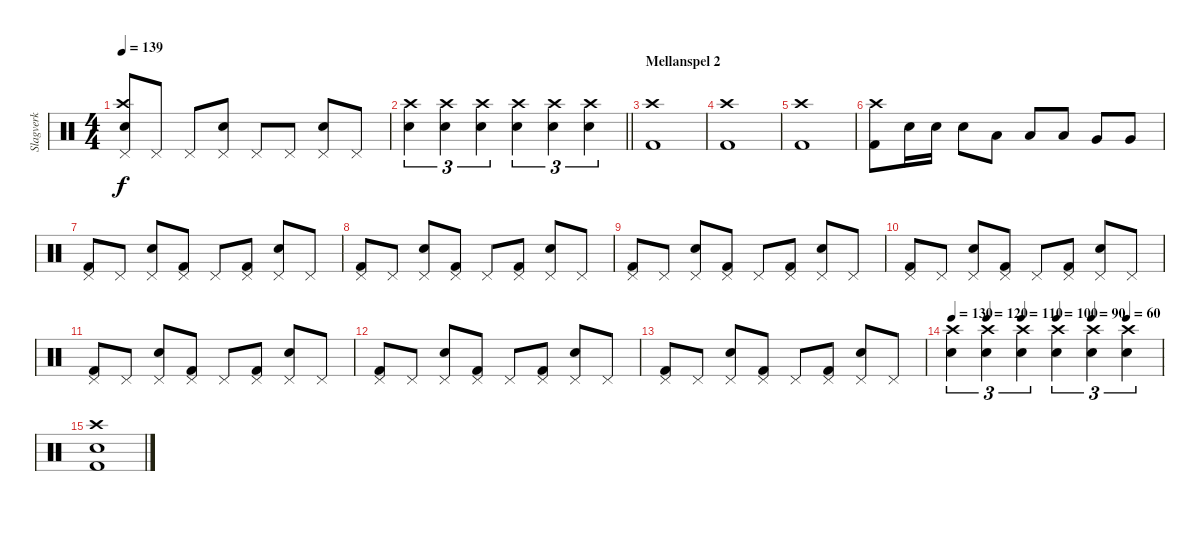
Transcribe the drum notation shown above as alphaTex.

\track ("Slagverk" "Slagverk") {instrument percussion}
\staff {score}
\articulation defaults
\ts (4 4)
\tempo 139
\clef neutral
\ks c
("Pedal Hi-Hat (hit)" "Crash high (hit)" "Snare (hit) 2").8{dy f} "Pedal Hi-Hat (hit)".8 "Pedal Hi-Hat (hit)".8 ("Pedal Hi-Hat (hit)" "Snare (hit) 2").8 "Pedal Hi-Hat (hit)".8 "Pedal Hi-Hat (hit)".8 ("Pedal Hi-Hat (hit)" "Snare (hit) 2").8 "Pedal Hi-Hat (hit)".8 |
\barLineRight lightlight
("Crash high (hit)" "Snare (hit) 2").4{tu (3 2)} ("Crash high (hit)" "Snare (hit) 2").4{tu (3 2)} ("Crash high (hit)" "Snare (hit) 2").4{tu (3 2)} ("Crash high (hit)" "Snare (hit) 2").4{tu (3 2)} ("Crash high (hit)" "Snare (hit) 2").4{tu (3 2)} ("Crash high (hit)" "Snare (hit) 2").4{tu (3 2)} |
\section ("" "Mellanspel 2")
("Crash high (hit)" "Kick (hit) 2").1 |
("Crash high (hit)" "Kick (hit) 2").1 |
("Crash high (hit)" "Kick (hit) 2").1 |
("Crash high (hit)" "Kick (hit) 2").8 "Snare (hit) 2".16 "Snare (hit) 2".16 "Snare (hit) 2".8 "Low Tom (hit)".8 "Low Tom (hit)".8 "Low Tom (hit)".8 "Very Low Tom (hit)".8 "Very Low Tom (hit)".8 |
("Pedal Hi-Hat (hit)" "Kick (hit) 2").8 "Pedal Hi-Hat (hit)".8 ("Pedal Hi-Hat (hit)" "Snare (hit) 2").8 ("Pedal Hi-Hat (hit)" "Kick (hit) 2").8 "Pedal Hi-Hat (hit)".8 ("Pedal Hi-Hat (hit)" "Kick (hit) 2").8 ("Pedal Hi-Hat (hit)" "Snare (hit) 2").8 "Pedal Hi-Hat (hit)".8 |
("Pedal Hi-Hat (hit)" "Kick (hit) 2").8 "Pedal Hi-Hat (hit)".8 ("Pedal Hi-Hat (hit)" "Snare (hit) 2").8 ("Pedal Hi-Hat (hit)" "Kick (hit) 2").8 "Pedal Hi-Hat (hit)".8 ("Pedal Hi-Hat (hit)" "Kick (hit) 2").8 ("Pedal Hi-Hat (hit)" "Snare (hit) 2").8 "Pedal Hi-Hat (hit)".8 |
("Pedal Hi-Hat (hit)" "Kick (hit) 2").8 "Pedal Hi-Hat (hit)".8 ("Pedal Hi-Hat (hit)" "Snare (hit) 2").8 ("Pedal Hi-Hat (hit)" "Kick (hit) 2").8 "Pedal Hi-Hat (hit)".8 ("Pedal Hi-Hat (hit)" "Kick (hit) 2").8 ("Pedal Hi-Hat (hit)" "Snare (hit) 2").8 "Pedal Hi-Hat (hit)".8 |
("Pedal Hi-Hat (hit)" "Kick (hit) 2").8 "Pedal Hi-Hat (hit)".8 ("Pedal Hi-Hat (hit)" "Snare (hit) 2").8 ("Pedal Hi-Hat (hit)" "Kick (hit) 2").8 "Pedal Hi-Hat (hit)".8 ("Pedal Hi-Hat (hit)" "Kick (hit) 2").8 ("Pedal Hi-Hat (hit)" "Snare (hit) 2").8 "Pedal Hi-Hat (hit)".8 |
("Pedal Hi-Hat (hit)" "Kick (hit) 2").8 "Pedal Hi-Hat (hit)".8 ("Pedal Hi-Hat (hit)" "Snare (hit) 2").8 ("Pedal Hi-Hat (hit)" "Kick (hit) 2").8 "Pedal Hi-Hat (hit)".8 ("Pedal Hi-Hat (hit)" "Kick (hit) 2").8 ("Pedal Hi-Hat (hit)" "Snare (hit) 2").8 "Pedal Hi-Hat (hit)".8 |
("Pedal Hi-Hat (hit)" "Kick (hit) 2").8 "Pedal Hi-Hat (hit)".8 ("Pedal Hi-Hat (hit)" "Snare (hit) 2").8 ("Pedal Hi-Hat (hit)" "Kick (hit) 2").8 "Pedal Hi-Hat (hit)".8 ("Pedal Hi-Hat (hit)" "Kick (hit) 2").8 ("Pedal Hi-Hat (hit)" "Snare (hit) 2").8 "Pedal Hi-Hat (hit)".8 |
("Pedal Hi-Hat (hit)" "Kick (hit) 2").8 "Pedal Hi-Hat (hit)".8 ("Pedal Hi-Hat (hit)" "Snare (hit) 2").8 ("Pedal Hi-Hat (hit)" "Kick (hit) 2").8 "Pedal Hi-Hat (hit)".8 ("Pedal Hi-Hat (hit)" "Kick (hit) 2").8 ("Pedal Hi-Hat (hit)" "Snare (hit) 2").8 "Pedal Hi-Hat (hit)".8 |
\tempo 130
\tempo (120 0.16666666666666666)
\tempo (110 0.3333333333333333)
\tempo (100 0.5)
\tempo (90 0.6666666666666666)
\tempo (60 0.8333333333333334)
("Crash high (hit)" "Snare (hit) 2").4{tu (3 2)} ("Crash high (hit)" "Snare (hit) 2").4{tu (3 2)} ("Crash high (hit)" "Snare (hit) 2").4{tu (3 2)} ("Crash high (hit)" "Snare (hit) 2").4{tu (3 2)} ("Crash high (hit)" "Snare (hit) 2").4{tu (3 2)} ("Crash high (hit)" "Snare (hit) 2").4{tu (3 2)} |
("Crash high (hit)" "Snare (hit) 2" "Kick (hit) 2").1
